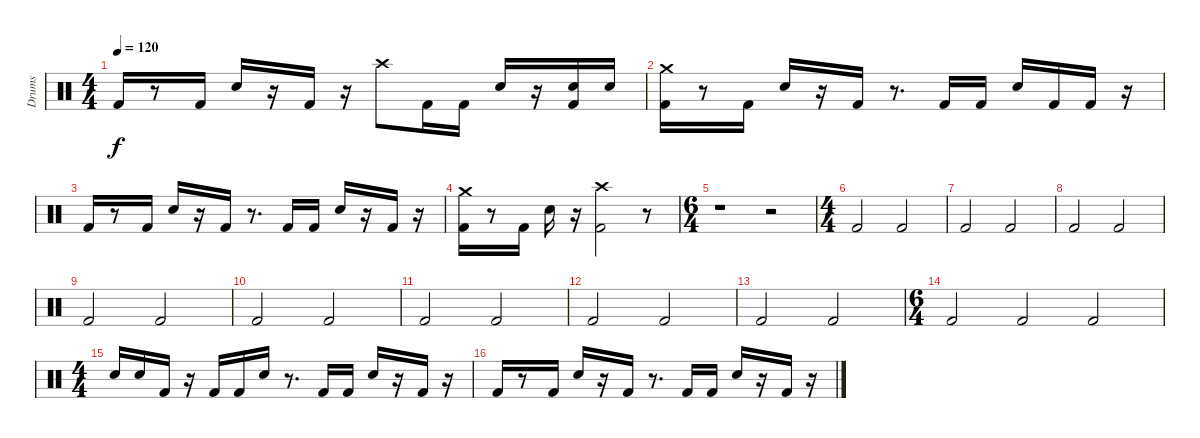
\track ("Drums" "Drums") {instrument percussion}
\staff {score}
\articulation defaults
\ts (4 4)
\tempo 120
\clef neutral
\ks c "Kick (hit) 2".16{dy f}
r.8 "Kick (hit) 2".16 "Snare (hit) 2".16 r.16 "Kick (hit) 2".16 r.16 "Crash high (hit)".8 "Kick (hit) 2".16 "Kick (hit) 2".16 "Snare (hit) 2".16 r.16 ("Kick (hit) 2" "Snare (hit) 2").16 "Snare (hit) 2".16 |
("Kick (hit) 2" "Crash medium (hit)").16 r.8 "Kick (hit) 2".16 "Snare (hit) 2".16 r.16 "Kick (hit) 2".16 r.8{d} "Kick (hit) 2".16 "Kick (hit) 2".16 "Snare (hit) 2".16 "Kick (hit) 2".16 "Kick (hit) 2".16 r.16 |
"Kick (hit) 2".16 r.8 "Kick (hit) 2".16 "Snare (hit) 2".16 r.16 "Kick (hit) 2".16 r.8{d} "Kick (hit) 2".16 "Kick (hit) 2".16 "Snare (hit) 2".16 r.16 "Kick (hit) 2".16 r.16 |
("Kick (hit) 2" "Crash medium (hit)").16 r.8 "Kick (hit) 2".16 "Snare (hit) 2".16 r.16 ("Kick (hit) 2" "Crash high (hit)").2 r.8 |
\ts (6 4)
r.1 r.2 |
\ts (4 4)
"Kick (hit) 2".2 "Kick (hit) 2".2 |
"Kick (hit) 2".2 "Kick (hit) 2".2 |
"Kick (hit) 2".2 "Kick (hit) 2".2 |
"Kick (hit) 2".2 "Kick (hit) 2".2 |
"Kick (hit) 2".2 "Kick (hit) 2".2 |
"Kick (hit) 2".2 "Kick (hit) 2".2 |
"Kick (hit) 2".2 "Kick (hit) 2".2 |
"Kick (hit) 2".2 "Kick (hit) 2".2 |
\ts (6 4)
"Kick (hit) 2".2 "Kick (hit) 2".2 "Kick (hit) 2".2 |
\ts (4 4)
"Snare (hit) 2".16 "Snare (hit) 2".16 "Kick (hit) 2".16 r.16 "Kick (hit) 2".16 "Kick (hit) 2".16 "Snare (hit) 2".16 r.8{d} "Kick (hit) 2".16 "Kick (hit) 2".16 "Snare (hit) 2".16 r.16 "Kick (hit) 2".16 r.16 |
"Kick (hit) 2".16 r.8 "Kick (hit) 2".16 "Snare (hit) 2".16 r.16 "Kick (hit) 2".16 r.8{d} "Kick (hit) 2".16 "Kick (hit) 2".16 "Snare (hit) 2".16 r.16 "Kick (hit) 2".16 r.16
